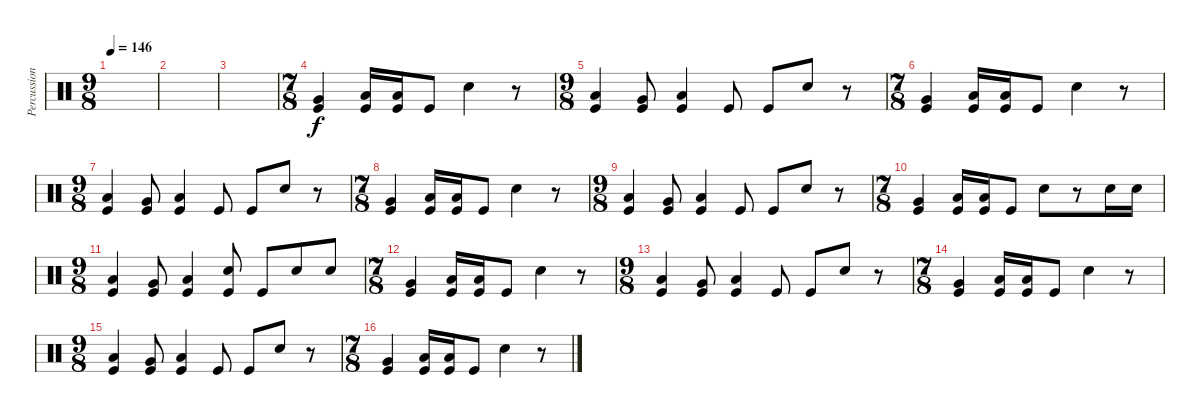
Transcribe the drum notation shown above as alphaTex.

\track ("Percussion" "Percussion") {instrument percussion}
\staff {score}
\articulation defaults
\ts (9 8)
\tempo 146
\clef neutral
\ks c
|
|
|
\ts (7 8)
("Very Low Tom (hit)" "Kick (hit)").4 ("Low Floor Tom (hit)" "Kick (hit)").16 ("Low Floor Tom (hit)" "Kick (hit)").16 "Kick (hit)".8 "Snare (hit) 2".4 r.8 |
\ts (9 8)
("Low Tom (hit)" "Kick (hit)").4 ("Very Low Tom (hit)" "Kick (hit)").8 ("Low Floor Tom (hit)" "Kick (hit)").4 "Kick (hit)".8 "Kick (hit)".8 "Snare (hit) 2".8 r.8 |
\ts (7 8)
("Very Low Tom (hit)" "Kick (hit)").4 ("Low Floor Tom (hit)" "Kick (hit)").16 ("Low Floor Tom (hit)" "Kick (hit)").16 "Kick (hit)".8 "Snare (hit) 2".4 r.8 |
\ts (9 8)
("Low Tom (hit)" "Kick (hit)").4 ("Very Low Tom (hit)" "Kick (hit)").8 ("Low Floor Tom (hit)" "Kick (hit)").4 "Kick (hit)".8 "Kick (hit)".8 "Snare (hit) 2".8 r.8 |
\ts (7 8)
("Very Low Tom (hit)" "Kick (hit)").4 ("Low Floor Tom (hit)" "Kick (hit)").16 ("Low Floor Tom (hit)" "Kick (hit)").16 "Kick (hit)".8 "Snare (hit) 2".4 r.8 |
\ts (9 8)
("Low Tom (hit)" "Kick (hit)").4 ("Very Low Tom (hit)" "Kick (hit)").8 ("Low Floor Tom (hit)" "Kick (hit)").4 "Kick (hit)".8 "Kick (hit)".8 "Snare (hit) 2".8 r.8 |
\ts (7 8)
("Very Low Tom (hit)" "Kick (hit)").4 ("Low Floor Tom (hit)" "Kick (hit)").16 ("Low Floor Tom (hit)" "Kick (hit)").16 "Kick (hit)".8 "Snare (hit) 2".8 r.8 "Snare (hit) 2".16 "Snare (hit) 2".16 |
\ts (9 8)
("Low Tom (hit)" "Kick (hit)").4 ("Very Low Tom (hit)" "Kick (hit)").8 ("Low Floor Tom (hit)" "Kick (hit)").4 ("Kick (hit)" "Snare (hit) 2").8 "Kick (hit)".8 "Snare (hit) 2".8 "Snare (hit) 2".8 |
\ts (7 8)
("Very Low Tom (hit)" "Kick (hit)").4 ("Low Floor Tom (hit)" "Kick (hit)").16 ("Low Floor Tom (hit)" "Kick (hit)").16 "Kick (hit)".8 "Snare (hit) 2".4 r.8 |
\ts (9 8)
("Low Tom (hit)" "Kick (hit)").4 ("Very Low Tom (hit)" "Kick (hit)").8 ("Low Floor Tom (hit)" "Kick (hit)").4 "Kick (hit)".8 "Kick (hit)".8 "Snare (hit) 2".8 r.8 |
\ts (7 8)
("Very Low Tom (hit)" "Kick (hit)").4 ("Low Floor Tom (hit)" "Kick (hit)").16 ("Low Floor Tom (hit)" "Kick (hit)").16 "Kick (hit)".8 "Snare (hit) 2".4 r.8 |
\ts (9 8)
("Low Tom (hit)" "Kick (hit)").4 ("Very Low Tom (hit)" "Kick (hit)").8 ("Low Floor Tom (hit)" "Kick (hit)").4 "Kick (hit)".8 "Kick (hit)".8 "Snare (hit) 2".8 r.8 |
\ts (7 8)
("Very Low Tom (hit)" "Kick (hit)").4 ("Low Floor Tom (hit)" "Kick (hit)").16 ("Low Floor Tom (hit)" "Kick (hit)").16 "Kick (hit)".8 "Snare (hit) 2".4 r.8
